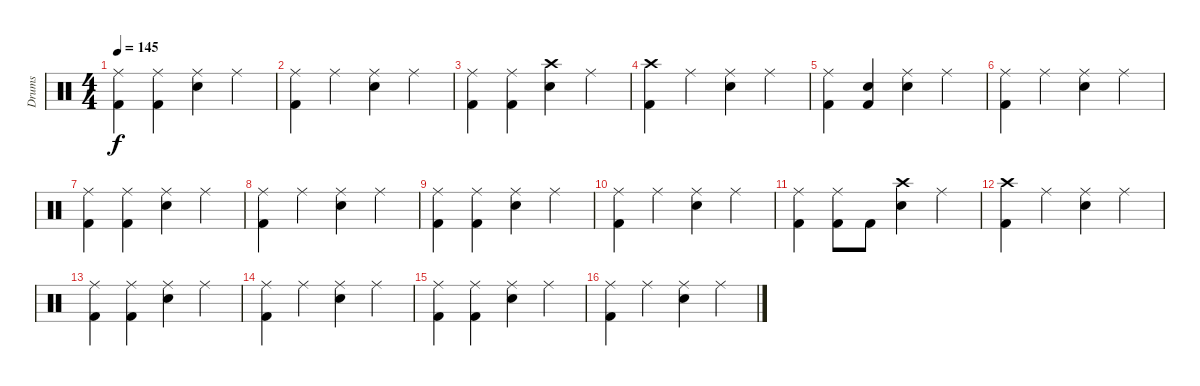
\track ("Drums" "Drums") {instrument percussion}
\staff {score}
\articulation defaults
\ts (4 4)
\tempo 145
\clef neutral
\ks c
("Ride (middle)" "Kick (hit) 2").4{dy f} ("Ride (middle)" "Kick (hit) 2").4 ("Ride (middle)" "Electric Snare (hit)").4 "Ride (middle)".4 |
("Ride (middle)" "Kick (hit) 2").4 "Ride (middle)".4 ("Ride (middle)" "Electric Snare (hit)").4 "Ride (middle)".4 |
("Ride (middle)" "Kick (hit) 2").4 ("Ride (middle)" "Kick (hit) 2").4 ("Crash high (hit)" "Electric Snare (hit)").4 "Ride (middle)".4 |
("Crash high (hit)" "Kick (hit) 2").4 "Ride (middle)".4 ("Ride (middle)" "Electric Snare (hit)").4 "Ride (middle)".4 |
("Ride (middle)" "Kick (hit) 2").4 ("Snare (hit)" "Kick (hit) 2").4 ("Ride (middle)" "Electric Snare (hit)").4 "Ride (middle)".4 |
("Ride (middle)" "Kick (hit) 2").4 "Ride (middle)".4 ("Ride (middle)" "Electric Snare (hit)").4 "Ride (middle)".4 |
("Ride (middle)" "Kick (hit) 2").4 ("Ride (middle)" "Kick (hit) 2").4 ("Ride (middle)" "Electric Snare (hit)").4 "Ride (middle)".4 |
("Ride (middle)" "Kick (hit) 2").4 "Ride (middle)".4 ("Ride (middle)" "Electric Snare (hit)").4 "Ride (middle)".4 |
("Ride (middle)" "Kick (hit) 2").4 ("Ride (middle)" "Kick (hit) 2").4 ("Ride (middle)" "Electric Snare (hit)").4 "Ride (middle)".4 |
("Ride (middle)" "Kick (hit) 2").4 "Ride (middle)".4 ("Ride (middle)" "Electric Snare (hit)").4 "Ride (middle)".4 |
("Ride (middle)" "Kick (hit) 2").4 ("Ride (middle)" "Kick (hit) 2").8 "Kick (hit) 2".8 ("Crash high (hit)" "Electric Snare (hit)").4 "Ride (middle)".4 |
("Crash high (hit)" "Kick (hit) 2").4 "Ride (middle)".4 ("Ride (middle)" "Electric Snare (hit)").4 "Ride (middle)".4 |
("Ride (middle)" "Kick (hit) 2").4 ("Ride (middle)" "Kick (hit) 2").4 ("Ride (middle)" "Electric Snare (hit)").4 "Ride (middle)".4 |
("Ride (middle)" "Kick (hit) 2").4 "Ride (middle)".4 ("Ride (middle)" "Electric Snare (hit)").4 "Ride (middle)".4 |
("Ride (middle)" "Kick (hit) 2").4 ("Ride (middle)" "Kick (hit) 2").4 ("Ride (middle)" "Electric Snare (hit)").4 "Ride (middle)".4 |
("Ride (middle)" "Kick (hit) 2").4 "Ride (middle)".4 ("Ride (middle)" "Electric Snare (hit)").4 "Ride (middle)".4
